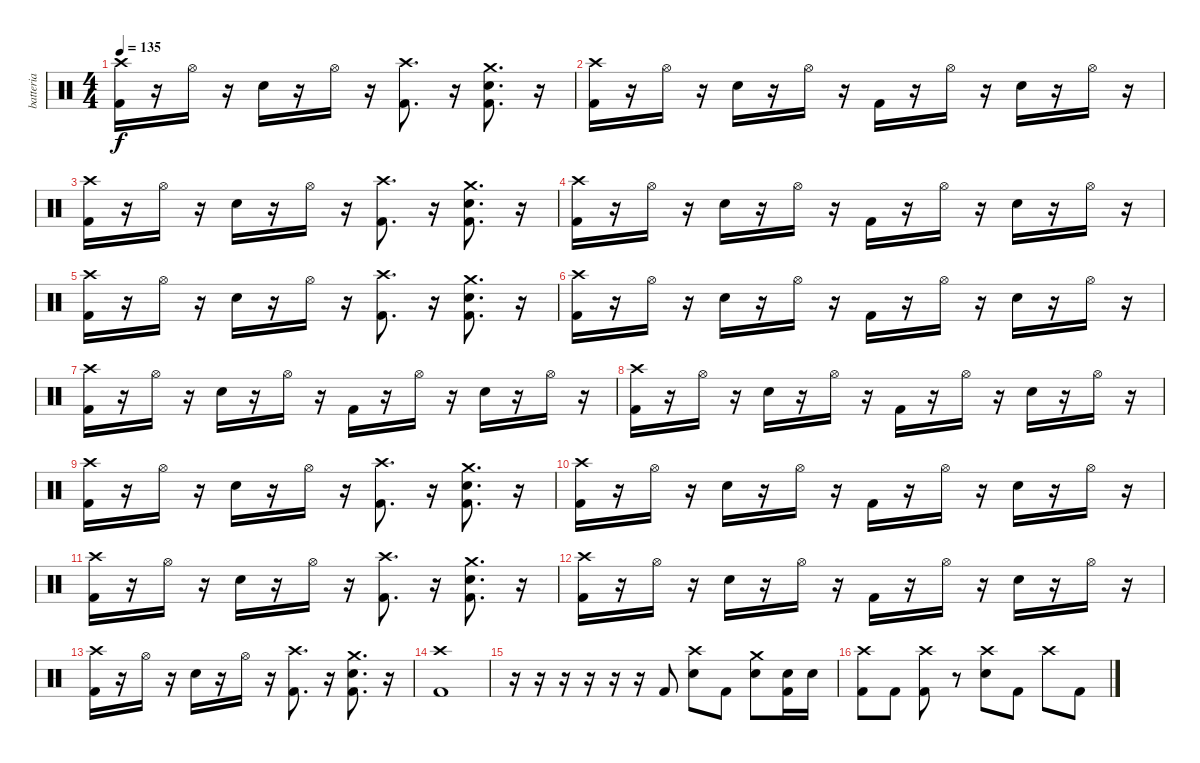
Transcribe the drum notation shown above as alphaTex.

\track ("batteria" "batteria") {instrument percussion}
\staff {score}
\articulation defaults
\ts (4 4)
\tempo 135
\clef neutral
\ks c
("Crash high (hit)" "Kick (hit) 2").16{dy f} r.16 "Hi-Hat (open)".16 r.16 "Electric Snare (hit)".16 r.16 "Hi-Hat (open)".16 r.16 ("Crash high (hit)" "Kick (hit) 2").8{d} r.16 ("Crash medium (hit)" "Electric Snare (hit)" "Kick (hit) 2").8{d} r.16 |
("Crash high (hit)" "Kick (hit) 2").16 r.16 "Hi-Hat (open)".16 r.16 "Electric Snare (hit)".16 r.16 "Hi-Hat (open)".16 r.16 "Kick (hit) 2".16 r.16 "Hi-Hat (open)".16 r.16 "Electric Snare (hit)".16 r.16 "Hi-Hat (open)".16 r.16 |
("Crash high (hit)" "Kick (hit) 2").16 r.16 "Hi-Hat (open)".16 r.16 "Electric Snare (hit)".16 r.16 "Hi-Hat (open)".16 r.16 ("Crash high (hit)" "Kick (hit) 2").8{d} r.16 ("Crash medium (hit)" "Electric Snare (hit)" "Kick (hit) 2").8{d} r.16 |
("Crash high (hit)" "Kick (hit) 2").16 r.16 "Hi-Hat (open)".16 r.16 "Electric Snare (hit)".16 r.16 "Hi-Hat (open)".16 r.16 "Kick (hit) 2".16 r.16 "Hi-Hat (open)".16 r.16 "Electric Snare (hit)".16 r.16 "Hi-Hat (open)".16 r.16 |
("Crash high (hit)" "Kick (hit) 2").16 r.16 "Hi-Hat (open)".16 r.16 "Electric Snare (hit)".16 r.16 "Hi-Hat (open)".16 r.16 ("Crash high (hit)" "Kick (hit) 2").8{d} r.16 ("Crash medium (hit)" "Electric Snare (hit)" "Kick (hit) 2").8{d} r.16 |
("Crash high (hit)" "Kick (hit) 2").16 r.16 "Hi-Hat (open)".16 r.16 "Electric Snare (hit)".16 r.16 "Hi-Hat (open)".16 r.16 "Kick (hit) 2".16 r.16 "Hi-Hat (open)".16 r.16 "Electric Snare (hit)".16 r.16 "Hi-Hat (open)".16 r.16 |
("Crash high (hit)" "Kick (hit) 2").16 r.16 "Hi-Hat (open)".16 r.16 "Electric Snare (hit)".16 r.16 "Hi-Hat (open)".16 r.16 "Kick (hit) 2".16 r.16 "Hi-Hat (open)".16 r.16 "Electric Snare (hit)".16 r.16 "Hi-Hat (open)".16 r.16 |
("Crash high (hit)" "Kick (hit) 2").16 r.16 "Hi-Hat (open)".16 r.16 "Electric Snare (hit)".16 r.16 "Hi-Hat (open)".16 r.16 "Kick (hit) 2".16 r.16 "Hi-Hat (open)".16 r.16 "Electric Snare (hit)".16 r.16 "Hi-Hat (open)".16 r.16 |
("Crash high (hit)" "Kick (hit) 2").16 r.16 "Hi-Hat (open)".16 r.16 "Electric Snare (hit)".16 r.16 "Hi-Hat (open)".16 r.16 ("Crash high (hit)" "Kick (hit) 2").8{d} r.16 ("Crash medium (hit)" "Electric Snare (hit)" "Kick (hit) 2").8{d} r.16 |
("Crash high (hit)" "Kick (hit) 2").16 r.16 "Hi-Hat (open)".16 r.16 "Electric Snare (hit)".16 r.16 "Hi-Hat (open)".16 r.16 "Kick (hit) 2".16 r.16 "Hi-Hat (open)".16 r.16 "Electric Snare (hit)".16 r.16 "Hi-Hat (open)".16 r.16 |
("Crash high (hit)" "Kick (hit) 2").16 r.16 "Hi-Hat (open)".16 r.16 "Electric Snare (hit)".16 r.16 "Hi-Hat (open)".16 r.16 ("Crash high (hit)" "Kick (hit) 2").8{d} r.16 ("Crash medium (hit)" "Electric Snare (hit)" "Kick (hit) 2").8{d} r.16 |
("Crash high (hit)" "Kick (hit) 2").16 r.16 "Hi-Hat (open)".16 r.16 "Electric Snare (hit)".16 r.16 "Hi-Hat (open)".16 r.16 "Kick (hit) 2".16 r.16 "Hi-Hat (open)".16 r.16 "Electric Snare (hit)".16 r.16 "Hi-Hat (open)".16 r.16 |
("Crash high (hit)" "Kick (hit) 2").16 r.16 "Hi-Hat (open)".16 r.16 "Electric Snare (hit)".16 r.16 "Hi-Hat (open)".16 r.16 ("Crash high (hit)" "Kick (hit) 2").8{d} r.16 ("Crash medium (hit)" "Electric Snare (hit)" "Kick (hit) 2").8{d} r.16 |
("Crash high (hit)" "Kick (hit) 2").1 |
r.16 r.16 r.16 r.16 r.16 r.16 "Kick (hit) 2".8 ("Crash high (hit)" "Electric Snare (hit)").8 "Kick (hit) 2".8 ("Crash medium (hit)" "Electric Snare (hit)").8 ("Electric Snare (hit)" "Kick (hit) 2").16 "Electric Snare (hit)".16 |
("Crash high (hit)" "Kick (hit) 2").8 "Kick (hit) 2".8 ("Crash high (hit)" "Kick (hit) 2").8 r.8 ("Crash high (hit)" "Electric Snare (hit)").8 "Kick (hit) 2".8 "Crash high (hit)".8 "Kick (hit) 2".8
